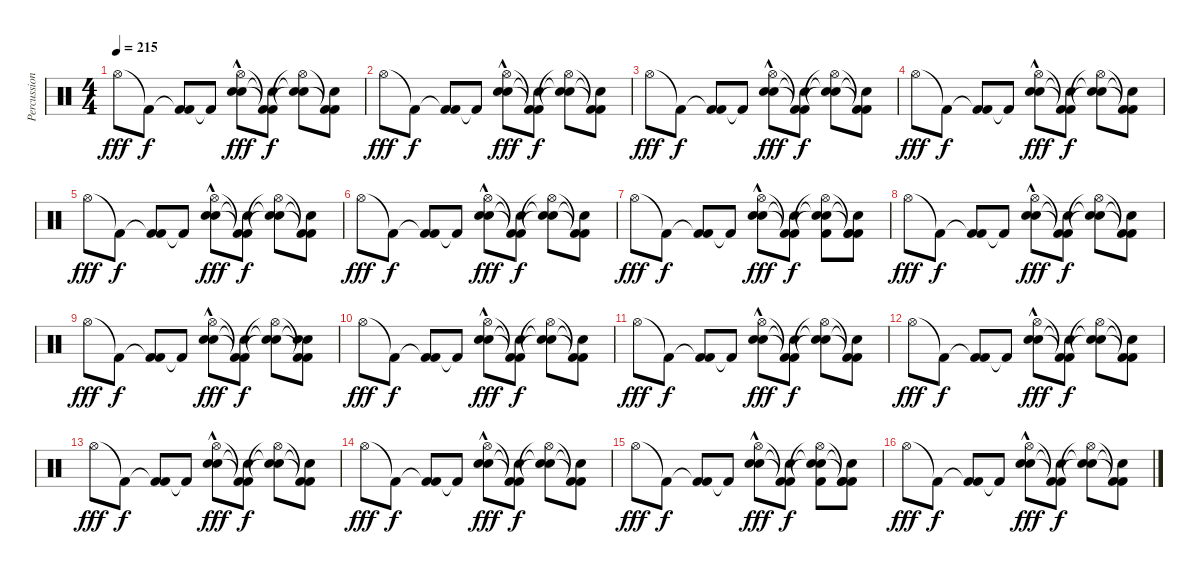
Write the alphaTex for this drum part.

\track ("Percussion" "Percussion") {instrument percussion}
\staff {score}
\articulation defaults
\ts (4 4)
\tempo 215
\clef neutral
\ks c "Hi-Hat (open)".8{dy fff} "Kick (hit) 2"{t}.8{dy f}
("Kick (hit) 2"{t} "Kick (hit) 2").8 "Kick (hit) 2"{t}.8 ("Snare (hit) 2"{hac} "Hi-Hat (open)"{hac} "Electric Snare (hit)").8{dy fff} ("Kick (hit) 2"{t} "Kick (hit) 2"{t} "Snare (hit)"{t}).8{dy f} ("Snare (hit)"{t} "Hi-Hat (open)"{t} "Snare (hit)"{t}).8 ("Kick (hit) 2"{t} "Kick (hit) 2"{t} "Electric Snare (hit)").8 |
"Hi-Hat (open)".8{dy fff} "Kick (hit) 2"{t}.8{dy f} ("Kick (hit) 2"{t} "Kick (hit) 2").8 "Kick (hit) 2"{t}.8 ("Snare (hit) 2"{hac} "Hi-Hat (open)"{hac} "Electric Snare (hit)").8{dy fff} ("Kick (hit) 2"{t} "Kick (hit) 2"{t} "Snare (hit)"{t}).8{dy f} ("Snare (hit)"{t} "Hi-Hat (open)"{t} "Snare (hit)"{t}).8 ("Kick (hit) 2"{t} "Kick (hit) 2"{t} "Snare (hit)"{t}).8 |
"Hi-Hat (open)".8{dy fff} "Kick (hit) 2"{t}.8{dy f} ("Kick (hit) 2"{t} "Kick (hit) 2").8 "Kick (hit) 2"{t}.8 ("Snare (hit) 2"{hac} "Hi-Hat (open)"{hac} "Electric Snare (hit)").8{dy fff} ("Kick (hit) 2"{t} "Kick (hit) 2"{t} "Snare (hit)"{t}).8{dy f} ("Snare (hit)"{t} "Hi-Hat (open)"{t} "Snare (hit)"{t}).8 ("Kick (hit) 2"{t} "Kick (hit) 2"{t} "Snare (hit)"{t}).8 |
"Hi-Hat (open)".8{dy fff} "Kick (hit) 2"{t}.8{dy f} ("Kick (hit) 2"{t} "Kick (hit) 2").8 "Kick (hit) 2"{t}.8 ("Snare (hit) 2"{hac} "Hi-Hat (open)"{hac} "Electric Snare (hit)").8{dy fff} ("Kick (hit) 2"{t} "Kick (hit) 2"{t} "Snare (hit)"{t}).8{dy f} ("Snare (hit)"{t} "Hi-Hat (open)"{t} "Snare (hit)"{t}).8 ("Kick (hit) 2"{t} "Kick (hit) 2"{t} "Snare (hit)"{t}).8 |
"Hi-Hat (open)".8{dy fff} "Kick (hit) 2"{t}.8{dy f} ("Kick (hit) 2"{t} "Kick (hit) 2").8 "Kick (hit) 2"{t}.8 ("Snare (hit) 2"{hac} "Hi-Hat (open)"{hac} "Electric Snare (hit)").8{dy fff} ("Kick (hit) 2"{t} "Kick (hit) 2"{t} "Snare (hit)"{t}).8{dy f} ("Snare (hit)"{t} "Hi-Hat (open)"{t} "Snare (hit)"{t}).8 ("Kick (hit) 2"{t} "Kick (hit) 2"{t} "Snare (hit)"{t}).8 |
"Hi-Hat (open)".8{dy fff} "Kick (hit) 2"{t}.8{dy f} ("Kick (hit) 2"{t} "Kick (hit) 2").8 "Kick (hit) 2"{t}.8 ("Snare (hit) 2"{hac} "Hi-Hat (open)"{hac} "Electric Snare (hit)").8{dy fff} ("Kick (hit) 2"{t} "Kick (hit) 2"{t} "Snare (hit)"{t}).8{dy f} ("Snare (hit)"{t} "Hi-Hat (open)"{t} "Snare (hit)"{t}).8 ("Kick (hit) 2"{t} "Kick (hit) 2"{t} "Snare (hit)"{t}).8 |
"Hi-Hat (open)".8{dy fff} "Kick (hit) 2"{t}.8{dy f} ("Kick (hit) 2"{t} "Kick (hit) 2").8 "Kick (hit) 2"{t}.8 ("Snare (hit) 2"{hac} "Hi-Hat (open)"{hac} "Electric Snare (hit)").8{dy fff} ("Kick (hit) 2"{t} "Kick (hit) 2"{t} "Snare (hit)"{t}).8{dy f} ("Snare (hit)"{t} "Hi-Hat (open)"{t} "Snare (hit)"{t} "Kick (hit) 2").8 ("Kick (hit) 2"{t} "Kick (hit) 2"{t} "Snare (hit)"{t} "Kick (hit) 2").8 |
"Hi-Hat (open)".8{dy fff} "Kick (hit) 2"{t}.8{dy f} ("Kick (hit) 2"{t} "Kick (hit) 2").8 "Kick (hit) 2"{t}.8 ("Snare (hit) 2"{hac} "Hi-Hat (open)"{hac} "Electric Snare (hit)").8{dy fff} ("Kick (hit) 2"{t} "Kick (hit) 2"{t} "Snare (hit)"{t}).8{dy f} ("Snare (hit)"{t} "Hi-Hat (open)"{t} "Snare (hit)"{t}).8 ("Kick (hit) 2"{t} "Kick (hit) 2"{t} "Snare (hit)"{t}).8 |
"Hi-Hat (open)".8{dy fff} "Kick (hit) 2"{t}.8{dy f} ("Kick (hit) 2"{t} "Kick (hit) 2").8 "Kick (hit) 2"{t}.8 ("Snare (hit) 2"{hac} "Hi-Hat (open)"{hac} "Electric Snare (hit)").8{dy fff} ("Kick (hit) 2"{t} "Kick (hit) 2"{t} "Snare (hit)"{t}).8{dy f} ("Snare (hit)"{t} "Hi-Hat (open)"{t} "Snare (hit)"{t}).8 ("Kick (hit) 2"{t} "Kick (hit) 2"{t} "Snare (hit)"{t} "Electric Snare (hit)").8 |
"Hi-Hat (open)".8{dy fff} "Kick (hit) 2"{t}.8{dy f} ("Kick (hit) 2"{t} "Kick (hit) 2").8 "Kick (hit) 2"{t}.8 ("Snare (hit) 2"{hac} "Hi-Hat (open)"{hac} "Electric Snare (hit)").8{dy fff} ("Kick (hit) 2"{t} "Kick (hit) 2"{t} "Snare (hit)"{t}).8{dy f} ("Snare (hit)"{t} "Hi-Hat (open)"{t} "Snare (hit)"{t}).8 ("Kick (hit) 2"{t} "Kick (hit) 2"{t} "Snare (hit)"{t}).8 |
"Hi-Hat (open)".8{dy fff} "Kick (hit) 2"{t}.8{dy f} ("Kick (hit) 2"{t} "Kick (hit) 2").8 "Kick (hit) 2"{t}.8 ("Snare (hit) 2"{hac} "Hi-Hat (open)"{hac} "Electric Snare (hit)").8{dy fff} ("Kick (hit) 2"{t} "Kick (hit) 2"{t} "Snare (hit)"{t}).8{dy f} ("Snare (hit)"{t} "Hi-Hat (open)"{t} "Snare (hit)"{t}).8 ("Kick (hit) 2"{t} "Kick (hit) 2"{t} "Snare (hit)"{t}).8 |
"Hi-Hat (open)".8{dy fff} "Kick (hit) 2"{t}.8{dy f} ("Kick (hit) 2"{t} "Kick (hit) 2").8 "Kick (hit) 2"{t}.8 ("Snare (hit) 2"{hac} "Hi-Hat (open)"{hac} "Electric Snare (hit)").8{dy fff} ("Kick (hit) 2"{t} "Kick (hit) 2"{t} "Snare (hit)"{t}).8{dy f} ("Snare (hit)"{t} "Hi-Hat (open)"{t} "Snare (hit)"{t}).8 ("Kick (hit) 2"{t} "Kick (hit) 2"{t} "Snare (hit)"{t}).8 |
"Hi-Hat (open)".8{dy fff} "Kick (hit) 2"{t}.8{dy f} ("Kick (hit) 2"{t} "Kick (hit) 2").8 "Kick (hit) 2"{t}.8 ("Snare (hit) 2"{hac} "Hi-Hat (open)"{hac} "Electric Snare (hit)").8{dy fff} ("Kick (hit) 2"{t} "Kick (hit) 2"{t} "Snare (hit)"{t}).8{dy f} ("Snare (hit)"{t} "Hi-Hat (open)"{t} "Snare (hit)"{t}).8 ("Kick (hit) 2"{t} "Kick (hit) 2"{t} "Snare (hit)"{t}).8 |
"Hi-Hat (open)".8{dy fff} "Kick (hit) 2"{t}.8{dy f} ("Kick (hit) 2"{t} "Kick (hit) 2").8 "Kick (hit) 2"{t}.8 ("Snare (hit) 2"{hac} "Hi-Hat (open)"{hac} "Electric Snare (hit)").8{dy fff} ("Kick (hit) 2"{t} "Kick (hit) 2"{t} "Snare (hit)"{t}).8{dy f} ("Snare (hit)"{t} "Hi-Hat (open)"{t} "Snare (hit)"{t}).8 ("Kick (hit) 2"{t} "Kick (hit) 2"{t} "Snare (hit)"{t}).8 |
"Hi-Hat (open)".8{dy fff} "Kick (hit) 2"{t}.8{dy f} ("Kick (hit) 2"{t} "Kick (hit) 2").8 "Kick (hit) 2"{t}.8 ("Snare (hit) 2"{hac} "Hi-Hat (open)"{hac} "Electric Snare (hit)").8{dy fff} ("Kick (hit) 2"{t} "Kick (hit) 2"{t} "Snare (hit)"{t}).8{dy f} ("Snare (hit)"{t} "Hi-Hat (open)"{t} "Snare (hit)"{t} "Kick (hit) 2").8 ("Kick (hit) 2"{t} "Kick (hit) 2"{t} "Snare (hit)"{t} "Kick (hit) 2").8 |
"Hi-Hat (open)".8{dy fff} "Kick (hit) 2"{t}.8{dy f} ("Kick (hit) 2"{t} "Kick (hit) 2").8 "Kick (hit) 2"{t}.8 ("Snare (hit) 2"{hac} "Hi-Hat (open)"{hac} "Electric Snare (hit)").8{dy fff} ("Kick (hit) 2"{t} "Kick (hit) 2"{t} "Snare (hit)"{t}).8{dy f} ("Snare (hit)"{t} "Hi-Hat (open)"{t} "Snare (hit)"{t}).8 ("Kick (hit) 2"{t} "Kick (hit) 2"{t} "Snare (hit)"{t}).8
